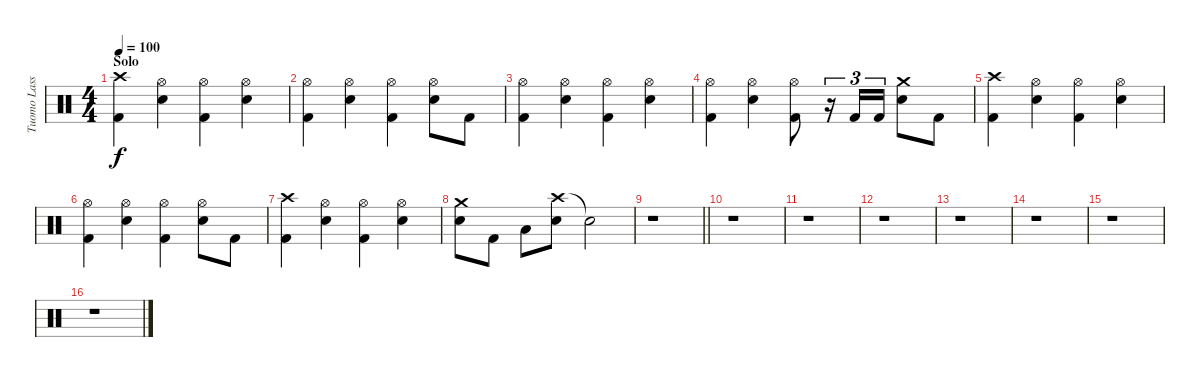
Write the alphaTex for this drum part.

\track ("Tuomo Lassila" "Tuomo Lass") {instrument percussion}
\staff {score}
\articulation defaults
\ts (4 4)
\section ("" "Solo")
\tempo 100
\clef neutral
\ks c
("Crash high (hit)" "Kick (hit) 2").4{dy f} ("Hi-Hat (open)" "Electric Snare (hit)").4 ("Hi-Hat (open)" "Kick (hit) 2").4 ("Hi-Hat (open)" "Electric Snare (hit)").4 |
("Hi-Hat (open)" "Kick (hit) 2").4 ("Hi-Hat (open)" "Electric Snare (hit)").4 ("Hi-Hat (open)" "Kick (hit) 2").4 ("Hi-Hat (open)" "Electric Snare (hit)").8 "Kick (hit) 2".8 |
("Hi-Hat (open)" "Kick (hit) 2").4 ("Hi-Hat (open)" "Electric Snare (hit)").4 ("Hi-Hat (open)" "Kick (hit) 2").4 ("Hi-Hat (open)" "Electric Snare (hit)").4 |
("Hi-Hat (open)" "Kick (hit) 2").4 ("Hi-Hat (open)" "Electric Snare (hit)").4 ("Hi-Hat (open)" "Kick (hit) 2").8 r.16{tu (3 2)} "Kick (hit) 2".16{tu (3 2)} "Kick (hit) 2".16{tu (3 2)} ("Crash medium (hit)" "Electric Snare (hit)").8 "Kick (hit) 2".8 |
("Crash high (hit)" "Kick (hit) 2").4 ("Hi-Hat (open)" "Electric Snare (hit)").4 ("Hi-Hat (open)" "Kick (hit) 2").4 ("Hi-Hat (open)" "Electric Snare (hit)").4 |
("Hi-Hat (open)" "Kick (hit) 2").4 ("Hi-Hat (open)" "Electric Snare (hit)").4 ("Hi-Hat (open)" "Kick (hit) 2").4 ("Hi-Hat (open)" "Electric Snare (hit)").8 "Kick (hit) 2".8 |
("Crash high (hit)" "Kick (hit) 2").4 ("Hi-Hat (open)" "Electric Snare (hit)").4 ("Hi-Hat (open)" "Kick (hit) 2").4 ("Hi-Hat (open)" "Electric Snare (hit)").4 |
("Crash medium (hit)" "Electric Snare (hit)").8 "Kick (hit) 2".8 "Low Tom (hit)".8 ("Crash high (hit)" "Electric Snare (hit)").8 "Snare (hit)"{t}.2 |
\barLineRight lightlight
r.1 |
r.1 |
r.1 |
r.1 |
r.1 |
r.1 |
r.1 |
r.1
